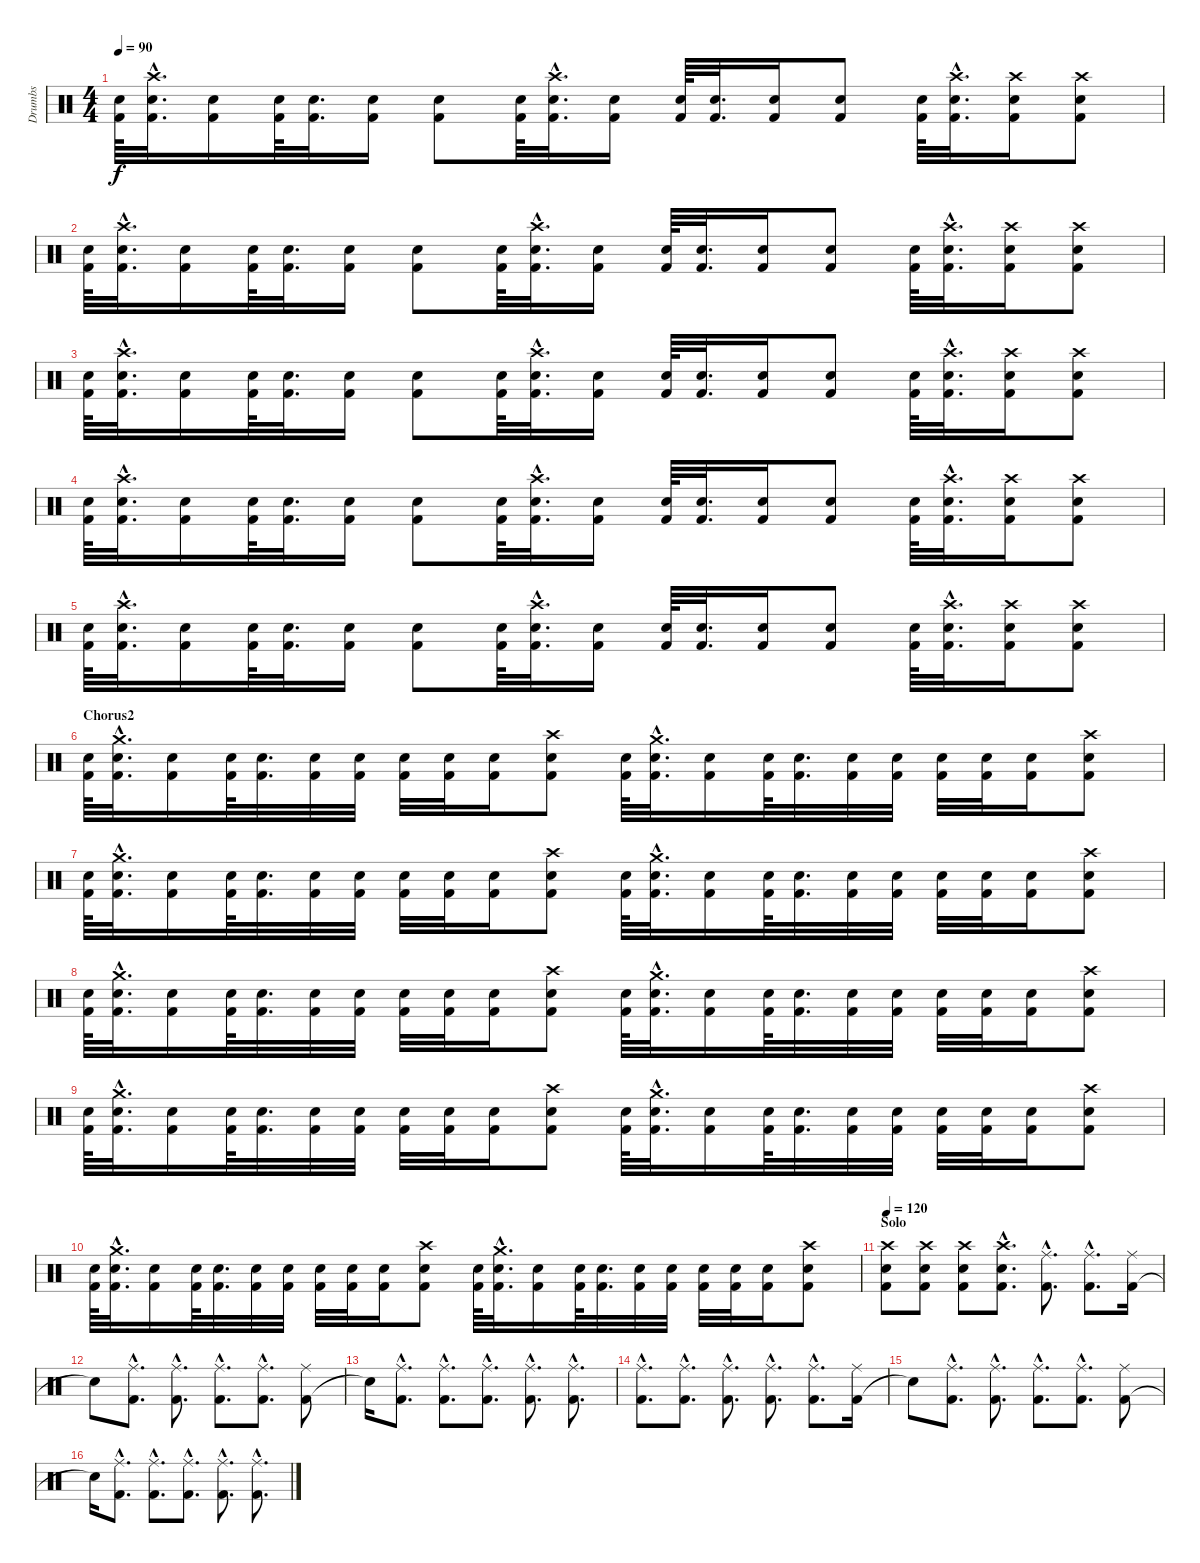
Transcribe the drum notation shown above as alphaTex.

\track ("Drumbs" "Drumbs") {instrument percussion}
\staff {score}
\articulation defaults
\ts (4 4)
\tempo 90
\clef neutral
\ks c
("Electric Snare (hit)" "Kick (hit) 2").64{dy f} ("Electric Snare (hit)" "Kick (hit) 2" "Crash high (hit)"{hac}).32{d} ("Electric Snare (hit)" "Kick (hit) 2").16 ("Electric Snare (hit)" "Kick (hit) 2").64 ("Electric Snare (hit)" "Kick (hit) 2").32{d} ("Electric Snare (hit)" "Kick (hit) 2").16 ("Electric Snare (hit)" "Kick (hit) 2").8 ("Electric Snare (hit)" "Kick (hit) 2").64 ("Electric Snare (hit)" "Kick (hit) 2" "Crash high (hit)"{hac}).32{d} ("Electric Snare (hit)" "Kick (hit) 2").16 ("Electric Snare (hit)" "Kick (hit) 2").64 ("Electric Snare (hit)" "Kick (hit) 2").32{d} ("Electric Snare (hit)" "Kick (hit) 2").16 ("Electric Snare (hit)" "Kick (hit) 2").8 ("Electric Snare (hit)" "Kick (hit) 2").64 ("Electric Snare (hit)" "Kick (hit) 2" "Crash high (hit)"{hac}).32{d} ("Electric Snare (hit)" "Kick (hit) 2" "Crash high (hit)").16 ("Electric Snare (hit)" "Kick (hit) 2" "Crash high (hit)").8 |
("Electric Snare (hit)" "Kick (hit) 2").64 ("Electric Snare (hit)" "Kick (hit) 2" "Crash high (hit)"{hac}).32{d} ("Electric Snare (hit)" "Kick (hit) 2").16 ("Electric Snare (hit)" "Kick (hit) 2").64 ("Electric Snare (hit)" "Kick (hit) 2").32{d} ("Electric Snare (hit)" "Kick (hit) 2").16 ("Electric Snare (hit)" "Kick (hit) 2").8 ("Electric Snare (hit)" "Kick (hit) 2").64 ("Electric Snare (hit)" "Kick (hit) 2" "Crash high (hit)"{hac}).32{d} ("Electric Snare (hit)" "Kick (hit) 2").16 ("Electric Snare (hit)" "Kick (hit) 2").64 ("Electric Snare (hit)" "Kick (hit) 2").32{d} ("Electric Snare (hit)" "Kick (hit) 2").16 ("Electric Snare (hit)" "Kick (hit) 2").8 ("Electric Snare (hit)" "Kick (hit) 2").64 ("Electric Snare (hit)" "Kick (hit) 2" "Crash high (hit)"{hac}).32{d} ("Electric Snare (hit)" "Kick (hit) 2" "Crash high (hit)").16 ("Electric Snare (hit)" "Kick (hit) 2" "Crash high (hit)").8 |
("Electric Snare (hit)" "Kick (hit) 2").64 ("Electric Snare (hit)" "Kick (hit) 2" "Crash high (hit)"{hac}).32{d} ("Electric Snare (hit)" "Kick (hit) 2").16 ("Electric Snare (hit)" "Kick (hit) 2").64 ("Electric Snare (hit)" "Kick (hit) 2").32{d} ("Electric Snare (hit)" "Kick (hit) 2").16 ("Electric Snare (hit)" "Kick (hit) 2").8 ("Electric Snare (hit)" "Kick (hit) 2").64 ("Electric Snare (hit)" "Kick (hit) 2" "Crash high (hit)"{hac}).32{d} ("Electric Snare (hit)" "Kick (hit) 2").16 ("Electric Snare (hit)" "Kick (hit) 2").64 ("Electric Snare (hit)" "Kick (hit) 2").32{d} ("Electric Snare (hit)" "Kick (hit) 2").16 ("Electric Snare (hit)" "Kick (hit) 2").8 ("Electric Snare (hit)" "Kick (hit) 2").64 ("Electric Snare (hit)" "Kick (hit) 2" "Crash high (hit)"{hac}).32{d} ("Electric Snare (hit)" "Kick (hit) 2" "Crash high (hit)").16 ("Electric Snare (hit)" "Kick (hit) 2" "Crash high (hit)").8 |
("Electric Snare (hit)" "Kick (hit) 2").64 ("Electric Snare (hit)" "Kick (hit) 2" "Crash high (hit)"{hac}).32{d} ("Electric Snare (hit)" "Kick (hit) 2").16 ("Electric Snare (hit)" "Kick (hit) 2").64 ("Electric Snare (hit)" "Kick (hit) 2").32{d} ("Electric Snare (hit)" "Kick (hit) 2").16 ("Electric Snare (hit)" "Kick (hit) 2").8 ("Electric Snare (hit)" "Kick (hit) 2").64 ("Electric Snare (hit)" "Kick (hit) 2" "Crash high (hit)"{hac}).32{d} ("Electric Snare (hit)" "Kick (hit) 2").16 ("Electric Snare (hit)" "Kick (hit) 2").64 ("Electric Snare (hit)" "Kick (hit) 2").32{d} ("Electric Snare (hit)" "Kick (hit) 2").16 ("Electric Snare (hit)" "Kick (hit) 2").8 ("Electric Snare (hit)" "Kick (hit) 2").64 ("Electric Snare (hit)" "Kick (hit) 2" "Crash high (hit)"{hac}).32{d} ("Electric Snare (hit)" "Kick (hit) 2" "Crash high (hit)").16 ("Electric Snare (hit)" "Kick (hit) 2" "Crash high (hit)").8 |
("Electric Snare (hit)" "Kick (hit) 2").64 ("Electric Snare (hit)" "Kick (hit) 2" "Crash high (hit)"{hac}).32{d} ("Electric Snare (hit)" "Kick (hit) 2").16 ("Electric Snare (hit)" "Kick (hit) 2").64 ("Electric Snare (hit)" "Kick (hit) 2").32{d} ("Electric Snare (hit)" "Kick (hit) 2").16 ("Electric Snare (hit)" "Kick (hit) 2").8 ("Electric Snare (hit)" "Kick (hit) 2").64 ("Electric Snare (hit)" "Kick (hit) 2" "Crash high (hit)"{hac}).32{d} ("Electric Snare (hit)" "Kick (hit) 2").16 ("Electric Snare (hit)" "Kick (hit) 2").64 ("Electric Snare (hit)" "Kick (hit) 2").32{d} ("Electric Snare (hit)" "Kick (hit) 2").16 ("Electric Snare (hit)" "Kick (hit) 2").8 ("Electric Snare (hit)" "Kick (hit) 2").64 ("Electric Snare (hit)" "Kick (hit) 2" "Crash high (hit)"{hac}).32{d} ("Electric Snare (hit)" "Kick (hit) 2" "Crash high (hit)").16 ("Electric Snare (hit)" "Kick (hit) 2" "Crash high (hit)").8 |
\section ("" "Chorus2")
("Electric Snare (hit)" "Kick (hit) 2").64 ("Electric Snare (hit)" "Kick (hit) 2" "Crash medium (hit)"{hac}).32{d} ("Electric Snare (hit)" "Kick (hit) 2").16 ("Electric Snare (hit)" "Kick (hit) 2").64 ("Electric Snare (hit)" "Kick (hit) 2").32{d} ("Electric Snare (hit)" "Kick (hit) 2").32 ("Electric Snare (hit)" "Kick (hit) 2").32 ("Electric Snare (hit)" "Kick (hit) 2").32 ("Electric Snare (hit)" "Kick (hit) 2").32 ("Electric Snare (hit)" "Kick (hit) 2").16 ("Electric Snare (hit)" "Kick (hit) 2" "Crash high (hit)").8 ("Electric Snare (hit)" "Kick (hit) 2").64 ("Electric Snare (hit)" "Kick (hit) 2" "Crash medium (hit)"{hac}).32{d} ("Electric Snare (hit)" "Kick (hit) 2").16 ("Electric Snare (hit)" "Kick (hit) 2").64 ("Electric Snare (hit)" "Kick (hit) 2").32{d} ("Electric Snare (hit)" "Kick (hit) 2").32 ("Electric Snare (hit)" "Kick (hit) 2").32 ("Electric Snare (hit)" "Kick (hit) 2").32 ("Electric Snare (hit)" "Kick (hit) 2").32 ("Electric Snare (hit)" "Kick (hit) 2").16 ("Electric Snare (hit)" "Kick (hit) 2" "Crash high (hit)").8 |
("Electric Snare (hit)" "Kick (hit) 2").64 ("Electric Snare (hit)" "Kick (hit) 2" "Crash medium (hit)"{hac}).32{d} ("Electric Snare (hit)" "Kick (hit) 2").16 ("Electric Snare (hit)" "Kick (hit) 2").64 ("Electric Snare (hit)" "Kick (hit) 2").32{d} ("Electric Snare (hit)" "Kick (hit) 2").32 ("Electric Snare (hit)" "Kick (hit) 2").32 ("Electric Snare (hit)" "Kick (hit) 2").32 ("Electric Snare (hit)" "Kick (hit) 2").32 ("Electric Snare (hit)" "Kick (hit) 2").16 ("Electric Snare (hit)" "Kick (hit) 2" "Crash high (hit)").8 ("Electric Snare (hit)" "Kick (hit) 2").64 ("Electric Snare (hit)" "Kick (hit) 2" "Crash medium (hit)"{hac}).32{d} ("Electric Snare (hit)" "Kick (hit) 2").16 ("Electric Snare (hit)" "Kick (hit) 2").64 ("Electric Snare (hit)" "Kick (hit) 2").32{d} ("Electric Snare (hit)" "Kick (hit) 2").32 ("Electric Snare (hit)" "Kick (hit) 2").32 ("Electric Snare (hit)" "Kick (hit) 2").32 ("Electric Snare (hit)" "Kick (hit) 2").32 ("Electric Snare (hit)" "Kick (hit) 2").16 ("Electric Snare (hit)" "Kick (hit) 2" "Crash high (hit)").8 |
("Electric Snare (hit)" "Kick (hit) 2").64 ("Electric Snare (hit)" "Kick (hit) 2" "Crash medium (hit)"{hac}).32{d} ("Electric Snare (hit)" "Kick (hit) 2").16 ("Electric Snare (hit)" "Kick (hit) 2").64 ("Electric Snare (hit)" "Kick (hit) 2").32{d} ("Electric Snare (hit)" "Kick (hit) 2").32 ("Electric Snare (hit)" "Kick (hit) 2").32 ("Electric Snare (hit)" "Kick (hit) 2").32 ("Electric Snare (hit)" "Kick (hit) 2").32 ("Electric Snare (hit)" "Kick (hit) 2").16 ("Electric Snare (hit)" "Kick (hit) 2" "Crash high (hit)").8 ("Electric Snare (hit)" "Kick (hit) 2").64 ("Electric Snare (hit)" "Kick (hit) 2" "Crash medium (hit)"{hac}).32{d} ("Electric Snare (hit)" "Kick (hit) 2").16 ("Electric Snare (hit)" "Kick (hit) 2").64 ("Electric Snare (hit)" "Kick (hit) 2").32{d} ("Electric Snare (hit)" "Kick (hit) 2").32 ("Electric Snare (hit)" "Kick (hit) 2").32 ("Electric Snare (hit)" "Kick (hit) 2").32 ("Electric Snare (hit)" "Kick (hit) 2").32 ("Electric Snare (hit)" "Kick (hit) 2").16 ("Electric Snare (hit)" "Kick (hit) 2" "Crash high (hit)").8 |
("Electric Snare (hit)" "Kick (hit) 2").64 ("Electric Snare (hit)" "Kick (hit) 2" "Crash medium (hit)"{hac}).32{d} ("Electric Snare (hit)" "Kick (hit) 2").16 ("Electric Snare (hit)" "Kick (hit) 2").64 ("Electric Snare (hit)" "Kick (hit) 2").32{d} ("Electric Snare (hit)" "Kick (hit) 2").32 ("Electric Snare (hit)" "Kick (hit) 2").32 ("Electric Snare (hit)" "Kick (hit) 2").32 ("Electric Snare (hit)" "Kick (hit) 2").32 ("Electric Snare (hit)" "Kick (hit) 2").16 ("Electric Snare (hit)" "Kick (hit) 2" "Crash high (hit)").8 ("Electric Snare (hit)" "Kick (hit) 2").64 ("Electric Snare (hit)" "Kick (hit) 2" "Crash medium (hit)"{hac}).32{d} ("Electric Snare (hit)" "Kick (hit) 2").16 ("Electric Snare (hit)" "Kick (hit) 2").64 ("Electric Snare (hit)" "Kick (hit) 2").32{d} ("Electric Snare (hit)" "Kick (hit) 2").32 ("Electric Snare (hit)" "Kick (hit) 2").32 ("Electric Snare (hit)" "Kick (hit) 2").32 ("Electric Snare (hit)" "Kick (hit) 2").32 ("Electric Snare (hit)" "Kick (hit) 2").16 ("Electric Snare (hit)" "Kick (hit) 2" "Crash high (hit)").8 |
("Electric Snare (hit)" "Kick (hit) 2").64 ("Electric Snare (hit)" "Kick (hit) 2" "Crash medium (hit)"{hac}).32{d} ("Electric Snare (hit)" "Kick (hit) 2").16 ("Electric Snare (hit)" "Kick (hit) 2").64 ("Electric Snare (hit)" "Kick (hit) 2").32{d} ("Electric Snare (hit)" "Kick (hit) 2").32 ("Electric Snare (hit)" "Kick (hit) 2").32 ("Electric Snare (hit)" "Kick (hit) 2").32 ("Electric Snare (hit)" "Kick (hit) 2").32 ("Electric Snare (hit)" "Kick (hit) 2").16 ("Electric Snare (hit)" "Kick (hit) 2" "Crash high (hit)").8 ("Electric Snare (hit)" "Kick (hit) 2").64 ("Electric Snare (hit)" "Kick (hit) 2" "Crash medium (hit)"{hac}).32{d} ("Electric Snare (hit)" "Kick (hit) 2").16 ("Electric Snare (hit)" "Kick (hit) 2").64 ("Electric Snare (hit)" "Kick (hit) 2").32{d} ("Electric Snare (hit)" "Kick (hit) 2").32 ("Electric Snare (hit)" "Kick (hit) 2").32 ("Electric Snare (hit)" "Kick (hit) 2").32 ("Electric Snare (hit)" "Kick (hit) 2").32 ("Electric Snare (hit)" "Kick (hit) 2").16 ("Electric Snare (hit)" "Kick (hit) 2" "Crash high (hit)").8 |
\section ("" "Solo")
\tempo 120
("Electric Snare (hit)" "Kick (hit) 2" "Crash high (hit)").8 ("Electric Snare (hit)" "Kick (hit) 2" "Crash high (hit)").8 ("Electric Snare (hit)" "Kick (hit) 2" "Crash high (hit)").8 ("Electric Snare (hit)"{hac} "Kick (hit) 2"{hac} "Crash high (hit)"{hac}).8{d} ("Kick (hit) 2"{hac} "Ride (middle)"{hac}).8{d} ("Kick (hit) 2"{hac} "Ride (middle)"{hac}).8{d} ("Kick (hit) 2" "Ride (middle)").16 |
"Snare (hit)"{t}.8 ("Kick (hit) 2"{hac} "Ride (middle)"{hac}).8{d} ("Kick (hit) 2"{hac} "Ride (middle)"{hac}).8{d} ("Kick (hit) 2"{hac} "Ride (middle)"{hac}).8{d} ("Kick (hit) 2"{hac} "Ride (middle)"{hac}).8{d} ("Kick (hit) 2" "Ride (middle)").8 |
"Snare (hit)"{t}.16 ("Kick (hit) 2"{hac} "Ride (middle)"{hac}).8{d} ("Kick (hit) 2"{hac} "Ride (middle)"{hac}).8{d} ("Kick (hit) 2"{hac} "Ride (middle)"{hac}).8{d} ("Kick (hit) 2"{hac} "Ride (middle)"{hac}).8{d} ("Kick (hit) 2"{hac} "Ride (middle)"{hac}).8{d} |
("Kick (hit) 2"{hac} "Ride (middle)"{hac}).8{d} ("Kick (hit) 2"{hac} "Ride (middle)"{hac}).8{d} ("Kick (hit) 2"{hac} "Ride (middle)"{hac}).8{d} ("Kick (hit) 2"{hac} "Ride (middle)"{hac}).8{d} ("Kick (hit) 2"{hac} "Ride (middle)"{hac}).8{d} ("Kick (hit) 2" "Ride (middle)").16 |
"Snare (hit)"{t}.8 ("Kick (hit) 2"{hac} "Ride (middle)"{hac}).8{d} ("Kick (hit) 2"{hac} "Ride (middle)"{hac}).8{d} ("Kick (hit) 2"{hac} "Ride (middle)"{hac}).8{d} ("Kick (hit) 2"{hac} "Ride (middle)"{hac}).8{d} ("Kick (hit) 2" "Ride (middle)").8 |
"Snare (hit)"{t}.16 ("Kick (hit) 2"{hac} "Ride (middle)"{hac}).8{d} ("Kick (hit) 2"{hac} "Ride (middle)"{hac}).8{d} ("Kick (hit) 2"{hac} "Ride (middle)"{hac}).8{d} ("Kick (hit) 2"{hac} "Ride (middle)"{hac}).8{d} ("Kick (hit) 2"{hac} "Ride (middle)"{hac}).8{d}
